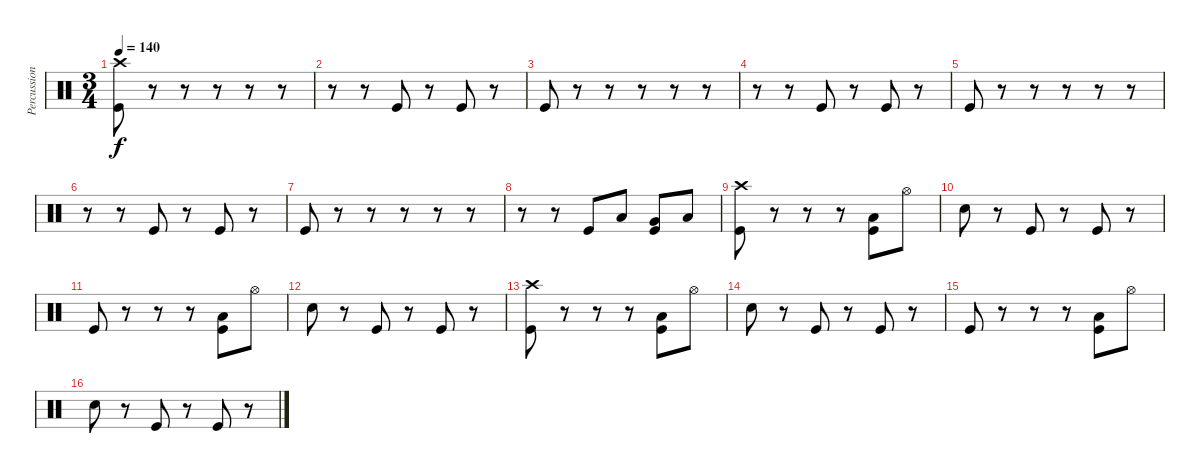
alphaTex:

\track ("Percussion" "Percussion") {instrument percussion}
\staff {score}
\articulation defaults
\ts (3 4)
\tempo 140
\clef neutral
\ks c
("Crash high (hit)" "Kick (hit)").8{dy f} r.8 r.8 r.8 r.8 r.8 |
r.8 r.8 "Kick (hit)".8 r.8 "Kick (hit)".8 r.8 |
"Kick (hit)".8 r.8 r.8 r.8 r.8 r.8 |
r.8 r.8 "Kick (hit)".8 r.8 "Kick (hit)".8 r.8 |
"Kick (hit)".8 r.8 r.8 r.8 r.8 r.8 |
r.8 r.8 "Kick (hit)".8 r.8 "Kick (hit)".8 r.8 |
"Kick (hit)".8 r.8 r.8 r.8 r.8 r.8 |
r.8 r.8 "Kick (hit)".8 "Low Tom (hit)".8 ("Very Low Tom (hit)" "Kick (hit)").8 "Low Floor Tom (hit)".8 |
("Crash high (hit)" "Kick (hit)").8 r.8 r.8 r.8 ("Low Floor Tom (hit)" "Kick (hit)").8 "Hi-Hat (open)".8 |
"Electric Snare (hit)".8 r.8 "Kick (hit)".8 r.8 "Kick (hit)".8 r.8 |
"Kick (hit)".8 r.8 r.8 r.8 ("Low Floor Tom (hit)" "Kick (hit)").8 "Hi-Hat (open)".8 |
"Electric Snare (hit)".8 r.8 "Kick (hit)".8 r.8 "Kick (hit)".8 r.8 |
("Crash high (hit)" "Kick (hit)").8 r.8 r.8 r.8 ("Low Floor Tom (hit)" "Kick (hit)").8 "Hi-Hat (open)".8 |
"Electric Snare (hit)".8 r.8 "Kick (hit)".8 r.8 "Kick (hit)".8 r.8 |
"Kick (hit)".8 r.8 r.8 r.8 ("Low Floor Tom (hit)" "Kick (hit)").8 "Hi-Hat (open)".8 |
"Electric Snare (hit)".8 r.8 "Kick (hit)".8 r.8 "Kick (hit)".8 r.8
